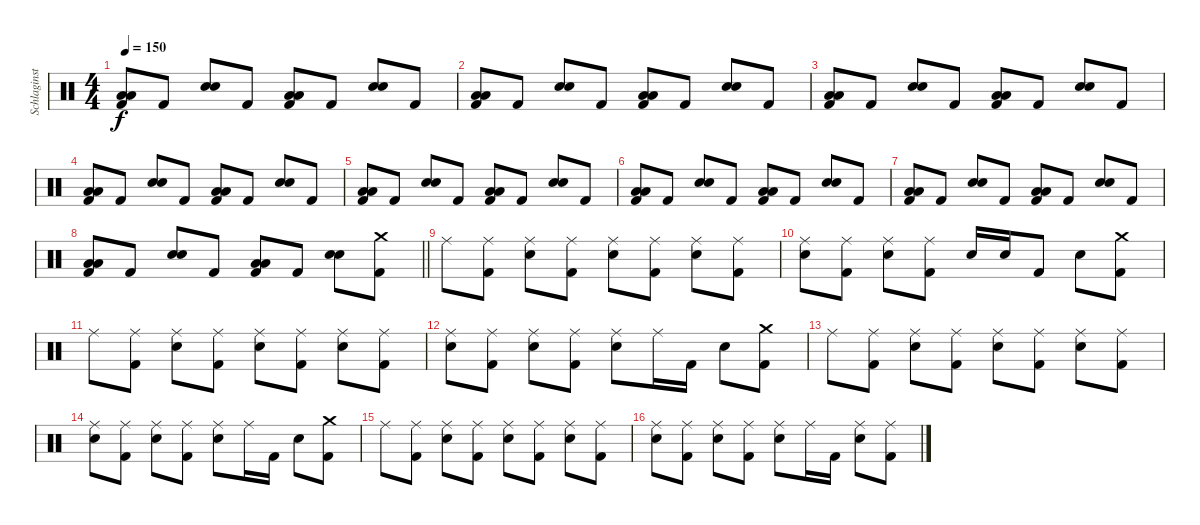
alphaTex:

\track ("Schlaginstrumente - Auswahl" "Schlaginst") {instrument percussion}
\staff {score}
\articulation defaults
\ts (4 4)
\tempo 150
\clef neutral
\ks c
("Low Tom (hit)" "Low Tom (hit)" "Kick (hit) 2").8{dy f} "Kick (hit) 2".8 ("Snare (hit) 2" "Snare (hit) 2").8{bd 120} "Kick (hit) 2".8 ("Low Tom (hit)" "Low Tom (hit)" "Kick (hit) 2").8 "Kick (hit) 2".8 ("Snare (hit) 2" "Snare (hit) 2").8{bd 120} "Kick (hit) 2".8 |
("Low Tom (hit)" "Low Tom (hit)" "Kick (hit) 2").8 "Kick (hit) 2".8 ("Snare (hit) 2" "Snare (hit) 2").8{bd 120} "Kick (hit) 2".8 ("Low Tom (hit)" "Low Tom (hit)" "Kick (hit) 2").8 "Kick (hit) 2".8 ("Snare (hit) 2" "Snare (hit) 2").8{bd 120} "Kick (hit) 2".8 |
("Low Tom (hit)" "Low Tom (hit)" "Kick (hit) 2").8 "Kick (hit) 2".8 ("Snare (hit) 2" "Snare (hit) 2").8{bd 120} "Kick (hit) 2".8 ("Low Tom (hit)" "Low Tom (hit)" "Kick (hit) 2").8 "Kick (hit) 2".8 ("Snare (hit) 2" "Snare (hit) 2").8{bd 120} "Kick (hit) 2".8 |
("Low Tom (hit)" "Low Tom (hit)" "Kick (hit) 2").8 "Kick (hit) 2".8 ("Snare (hit) 2" "Snare (hit) 2").8{bd 120} "Kick (hit) 2".8 ("Low Tom (hit)" "Low Tom (hit)" "Kick (hit) 2").8 "Kick (hit) 2".8 ("Snare (hit) 2" "Snare (hit) 2").8{bd 120} "Kick (hit) 2".8 |
("Low Tom (hit)" "Low Tom (hit)" "Kick (hit) 2").8 "Kick (hit) 2".8 ("Snare (hit) 2" "Snare (hit) 2").8{bd 120} "Kick (hit) 2".8 ("Low Tom (hit)" "Low Tom (hit)" "Kick (hit) 2").8 "Kick (hit) 2".8 ("Snare (hit) 2" "Snare (hit) 2").8{bd 120} "Kick (hit) 2".8 |
("Low Tom (hit)" "Low Tom (hit)" "Kick (hit) 2").8 "Kick (hit) 2".8 ("Snare (hit) 2" "Snare (hit) 2").8{bd 120} "Kick (hit) 2".8 ("Low Tom (hit)" "Low Tom (hit)" "Kick (hit) 2").8 "Kick (hit) 2".8 ("Snare (hit) 2" "Snare (hit) 2").8{bd 120} "Kick (hit) 2".8 |
("Low Tom (hit)" "Low Tom (hit)" "Kick (hit) 2").8 "Kick (hit) 2".8 ("Snare (hit) 2" "Snare (hit) 2").8{bd 120} "Kick (hit) 2".8 ("Low Tom (hit)" "Low Tom (hit)" "Kick (hit) 2").8 "Kick (hit) 2".8 ("Snare (hit) 2" "Snare (hit) 2").8{bd 120} "Kick (hit) 2".8 |
\barLineRight lightlight
("Low Tom (hit)" "Low Tom (hit)" "Kick (hit) 2").8 "Kick (hit) 2".8 ("Snare (hit) 2" "Snare (hit) 2").8{bd 120} "Kick (hit) 2".8 ("Low Tom (hit)" "Low Tom (hit)" "Kick (hit) 2").8 "Kick (hit) 2".8 ("Snare (hit) 2" "Snare (hit) 2").8{bd 120} ("Crash medium (hit)" "Kick (hit) 2").8 |
"Ride (middle)".8 ("Ride (middle)" "Kick (hit) 2").8 ("Ride (middle)" "Snare (hit) 2").8 ("Ride (middle)" "Kick (hit) 2").8 ("Ride (middle)" "Snare (hit) 2").8 ("Ride (middle)" "Kick (hit) 2").8 ("Ride (middle)" "Snare (hit) 2").8 ("Ride (middle)" "Kick (hit) 2").8 |
("Ride (middle)" "Snare (hit) 2").8 ("Ride (middle)" "Kick (hit) 2").8 ("Ride (middle)" "Snare (hit) 2").8 ("Ride (middle)" "Kick (hit) 2").8 "Snare (hit) 2".16 "Snare (hit) 2".16 "Kick (hit) 2".8 "Snare (hit) 2".8 ("Crash medium (hit)" "Kick (hit) 2").8 |
"Ride (middle)".8 ("Ride (middle)" "Kick (hit) 2").8 ("Ride (middle)" "Snare (hit) 2").8 ("Ride (middle)" "Kick (hit) 2").8 ("Ride (middle)" "Snare (hit) 2").8 ("Ride (middle)" "Kick (hit) 2").8 ("Ride (middle)" "Snare (hit) 2").8 ("Ride (middle)" "Kick (hit) 2").8 |
("Ride (middle)" "Snare (hit) 2").8 ("Ride (middle)" "Kick (hit) 2").8 ("Ride (middle)" "Snare (hit) 2").8 ("Ride (middle)" "Kick (hit) 2").8 ("Ride (middle)" "Snare (hit) 2").8 "Ride (middle)".16 "Kick (hit) 2".16 "Snare (hit) 2".8 ("Crash medium (hit)" "Kick (hit) 2").8 |
"Ride (middle)".8 ("Ride (middle)" "Kick (hit) 2").8 ("Ride (middle)" "Snare (hit) 2").8 ("Ride (middle)" "Kick (hit) 2").8 ("Ride (middle)" "Snare (hit) 2").8 ("Ride (middle)" "Kick (hit) 2").8 ("Ride (middle)" "Snare (hit) 2").8 ("Ride (middle)" "Kick (hit) 2").8 |
("Ride (middle)" "Snare (hit) 2").8 ("Ride (middle)" "Kick (hit) 2").8 ("Ride (middle)" "Snare (hit) 2").8 ("Ride (middle)" "Kick (hit) 2").8 ("Ride (middle)" "Snare (hit) 2").8 "Ride (middle)".16 "Kick (hit) 2".16 "Snare (hit) 2".8 ("Crash medium (hit)" "Kick (hit) 2").8 |
"Ride (middle)".8 ("Ride (middle)" "Kick (hit) 2").8 ("Ride (middle)" "Snare (hit) 2").8 ("Ride (middle)" "Kick (hit) 2").8 ("Ride (middle)" "Snare (hit) 2").8 ("Ride (middle)" "Kick (hit) 2").8 ("Ride (middle)" "Snare (hit) 2").8 ("Ride (middle)" "Kick (hit) 2").8 |
("Ride (middle)" "Snare (hit) 2").8 ("Ride (middle)" "Kick (hit) 2").8 ("Ride (middle)" "Snare (hit) 2").8 ("Ride (middle)" "Kick (hit) 2").8 ("Ride (middle)" "Snare (hit) 2").8 "Ride (middle)".16 "Kick (hit) 2".16 ("Ride (middle)" "Snare (hit) 2").8 ("Ride (middle)" "Kick (hit) 2").8
